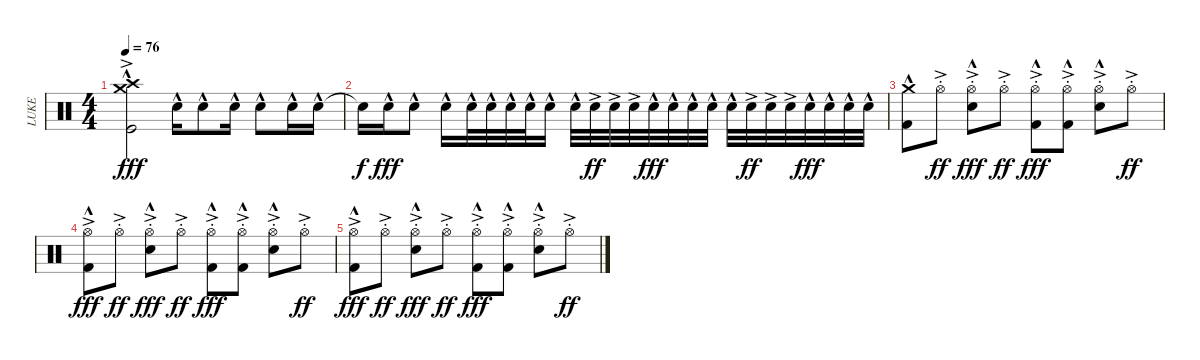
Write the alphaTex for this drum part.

\track ("LUKE" "LUKE") {instrument percussion}
\staff {score}
\articulation defaults
\ts (4 4)
\tempo 76
\clef neutral
\ks c
("Crash high (hit)"{hac} "Crash medium (hit)"{ac} "Kick (hit)"{hac}).2{dy fff} "Electric Snare (hit)"{hac}.16 "Electric Snare (hit)"{hac}.8 "Electric Snare (hit)"{hac}.16 "Electric Snare (hit)"{hac}.8 "Electric Snare (hit)"{hac}.16 "Electric Snare (hit)"{hac}.16 |
"Snare (hit)"{t}.16{dy f} "Electric Snare (hit)"{hac}.16{dy fff} "Electric Snare (hit)"{hac}.8 "Electric Snare (hit)"{hac}.16 "Electric Snare (hit)"{hac}.32 "Electric Snare (hit)"{hac}.32 "Electric Snare (hit)"{hac}.32 "Electric Snare (hit)"{hac}.32 "Electric Snare (hit)"{hac}.16 "Electric Snare (hit)"{hac}.32 "Electric Snare (hit)"{ac}.32{dy ff} "Electric Snare (hit)"{ac}.32 "Electric Snare (hit)"{ac}.32 "Electric Snare (hit)"{hac}.32{dy fff} "Electric Snare (hit)"{hac}.32 "Electric Snare (hit)"{hac}.32 "Electric Snare (hit)"{hac}.32 "Electric Snare (hit)"{hac}.32 "Electric Snare (hit)"{ac}.32{dy ff} "Electric Snare (hit)"{ac}.32 "Electric Snare (hit)"{ac}.32 "Electric Snare (hit)"{hac}.32{dy fff} "Electric Snare (hit)"{hac}.32 "Electric Snare (hit)"{hac}.32 "Electric Snare (hit)"{hac}.32 |
("Crash medium (hit)"{hac} "Kick (hit) 2"{hac}).8 "Hi-Hat (open)"{ac st}.8{dy ff} ("Hi-Hat (open)"{ac st} "Electric Snare (hit)"{hac}).8{dy fff} "Hi-Hat (open)"{ac st}.8{dy ff} ("Hi-Hat (open)"{ac st} "Kick (hit) 2"{hac}).8{dy fff} ("Hi-Hat (open)"{ac st} "Kick (hit) 2"{hac}).8 ("Hi-Hat (open)"{ac st} "Electric Snare (hit)"{hac}).8 "Hi-Hat (open)"{ac st}.8{dy ff} |
("Hi-Hat (open)"{ac} "Kick (hit) 2"{hac}).8{dy fff} "Hi-Hat (open)"{ac st}.8{dy ff} ("Hi-Hat (open)"{ac st} "Electric Snare (hit)"{hac}).8{dy fff} "Hi-Hat (open)"{ac st}.8{dy ff} ("Hi-Hat (open)"{ac st} "Kick (hit) 2"{hac}).8{dy fff} ("Hi-Hat (open)"{ac st} "Kick (hit) 2"{hac}).8 ("Hi-Hat (open)"{ac st} "Electric Snare (hit)"{hac}).8 "Hi-Hat (open)"{ac st}.8{dy ff} |
("Hi-Hat (open)"{ac} "Kick (hit) 2"{hac}).8{dy fff} "Hi-Hat (open)"{ac st}.8{dy ff} ("Hi-Hat (open)"{ac st} "Electric Snare (hit)"{hac}).8{dy fff} "Hi-Hat (open)"{ac st}.8{dy ff} ("Hi-Hat (open)"{ac st} "Kick (hit) 2"{hac}).8{dy fff} ("Hi-Hat (open)"{ac st} "Kick (hit) 2"{hac}).8 ("Hi-Hat (open)"{ac st} "Electric Snare (hit)"{hac}).8 "Hi-Hat (open)"{ac st}.8{dy ff}
